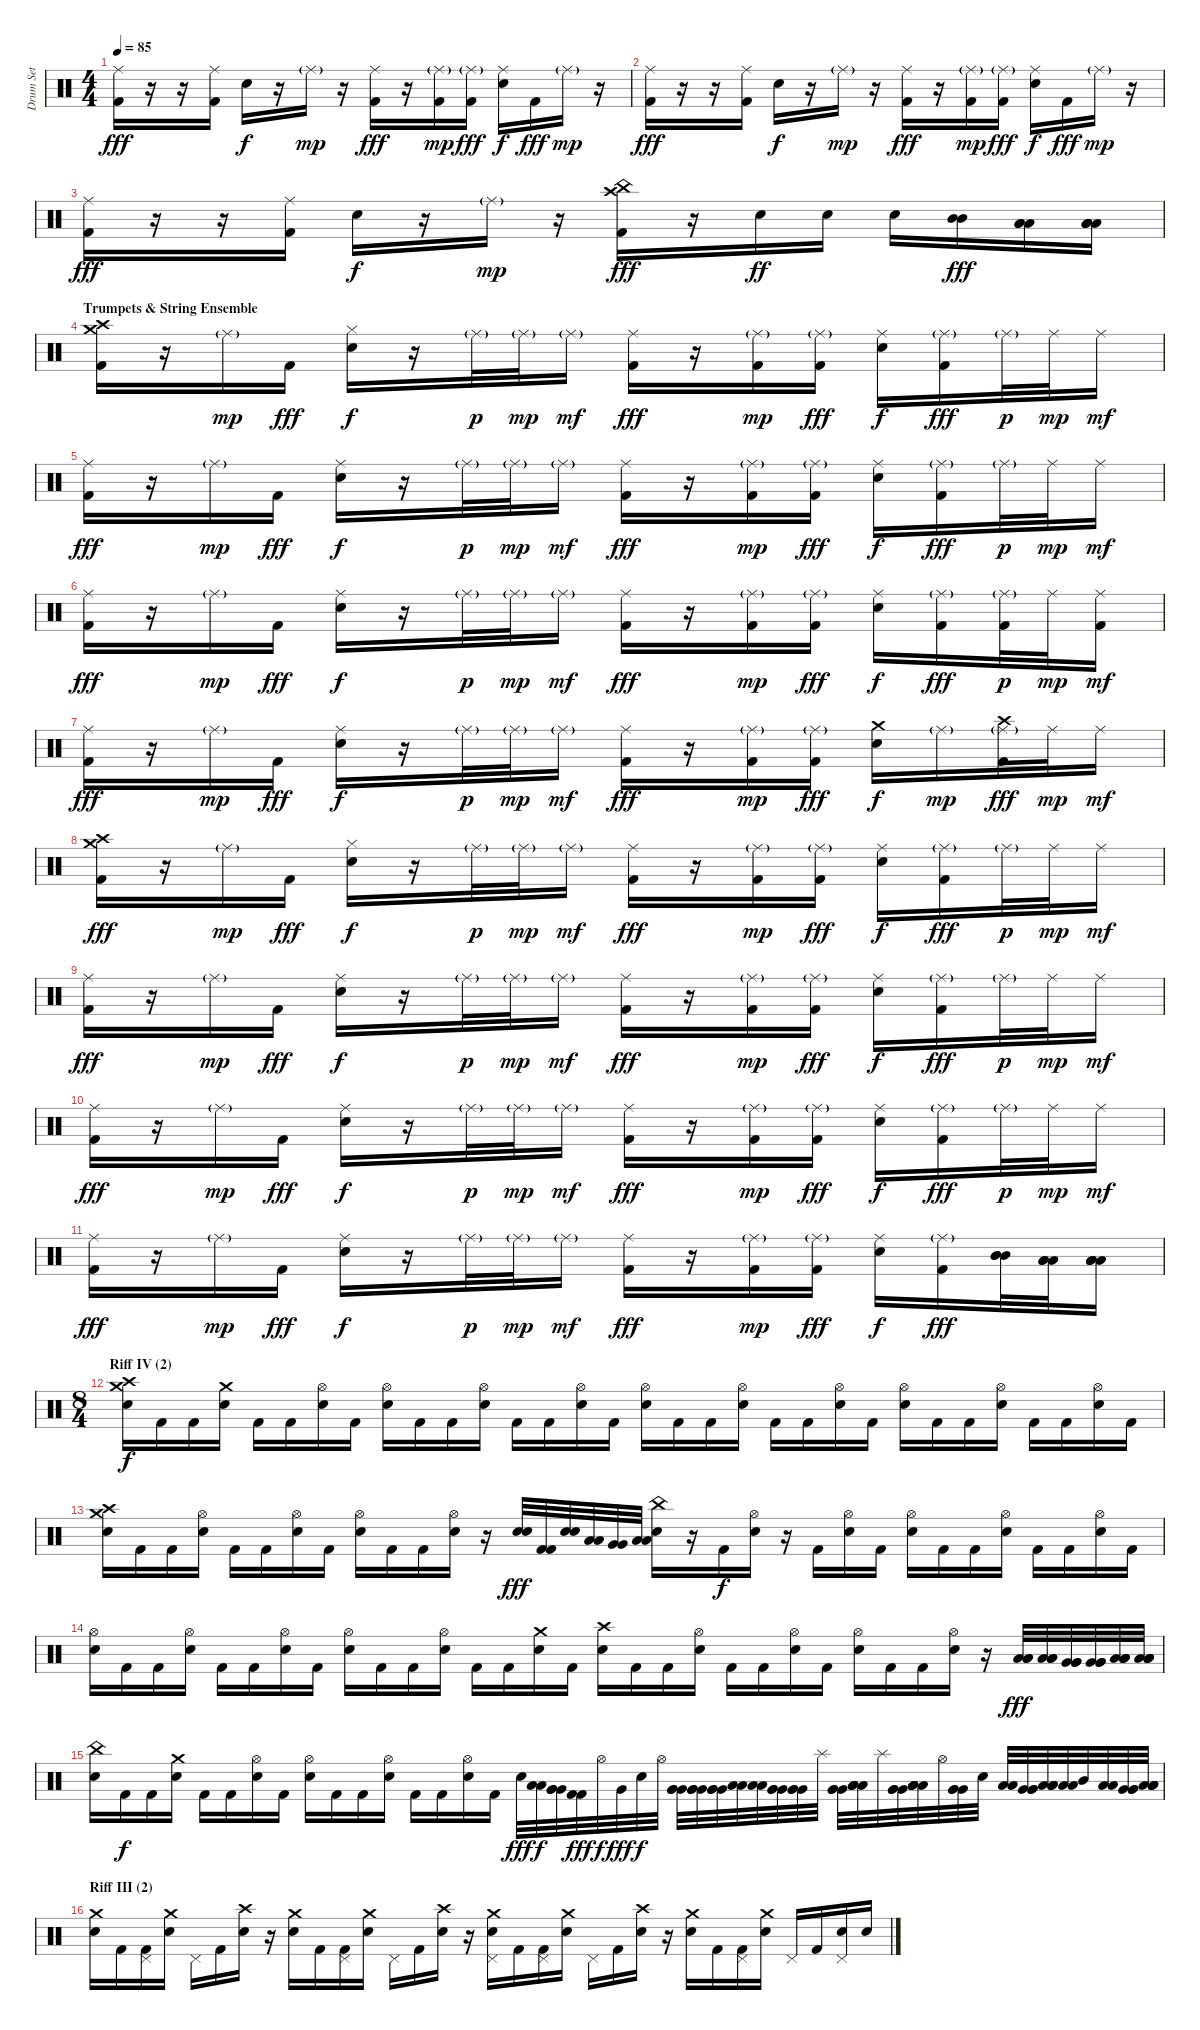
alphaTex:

\track ("Drum Set" "Drum Set") {instrument percussion}
\staff {score}
\articulation defaults
\ts (4 4)
\tempo 85
\clef neutral
\ks c
("Ride (middle)" "Kick (hit) 2").16{dy fff} r.16 r.16 ("Ride (middle)" "Kick (hit) 2").16 "Snare (hit) 2".16{dy f} r.16 "Ride (middle)"{g}.16{dy mp} r.16 ("Ride (middle)" "Kick (hit) 2").16{dy fff} r.16 ("Ride (middle)"{g} "Kick (hit) 2").16{dy mp} ("Ride (middle)"{g} "Kick (hit) 2").16{dy fff} ("Ride (middle)" "Snare (hit) 2").16{dy f} "Kick (hit) 2".16{dy fff} "Ride (middle)"{g}.16{dy mp} r.16 |
("Ride (middle)" "Kick (hit) 2").16{dy fff} r.16 r.16 ("Ride (middle)" "Kick (hit) 2").16 "Snare (hit) 2".16{dy f} r.16 "Ride (middle)"{g}.16{dy mp} r.16 ("Ride (middle)" "Kick (hit) 2").16{dy fff} r.16 ("Ride (middle)"{g} "Kick (hit) 2").16{dy mp} ("Ride (middle)"{g} "Kick (hit) 2").16{dy fff} ("Ride (middle)" "Snare (hit) 2").16{dy f} "Kick (hit) 2".16{dy fff} "Ride (middle)"{g}.16{dy mp} r.16 |
("Ride (middle)" "Kick (hit) 2").16{dy fff} r.16 r.16 ("Ride (middle)" "Kick (hit) 2").16 "Snare (hit) 2".16{dy f} r.16 "Ride (middle)"{g}.16{dy mp} r.16 ("Crash high (hit)" "China (hit)" "Kick (hit) 2").16{dy fff} r.16 "Snare (hit) 2".16{dy ff} "Snare (hit) 2".16 "Snare (hit) 2".16 ("Mid Tom (hit)" "Mid Tom (hit)").16{dy fff} ("Low Tom (hit)" "Low Tom (hit)" "Low Tom (hit)").16 ("Low Floor Tom (hit)" "Low Floor Tom (hit)" "Low Floor Tom (hit)" "Low Floor Tom (hit)").16 |
\section ("" "Trumpets & String Ensemble")
("Crash high (hit)" "Crash medium (hit)" "Kick (hit) 2").16 r.16 "Ride (middle)"{g}.16{dy mp} "Kick (hit) 2".16{dy fff} ("Hi-Hat (closed)" "Snare (hit) 2").16{dy f} r.16 "Ride (middle)"{g}.32{dy p} "Ride (middle)"{g}.32{dy mp} "Ride (middle)"{g}.16{dy mf} ("Ride (middle)" "Kick (hit) 2").16{dy fff} r.16 ("Ride (middle)"{g} "Kick (hit) 2").16{dy mp} ("Ride (middle)"{g} "Kick (hit) 2").16{dy fff} ("Ride (middle)" "Snare (hit) 2").16{dy f} ("Ride (middle)"{g} "Kick (hit) 2").16{dy fff} "Ride (middle)"{g}.32{dy p} "Ride (middle)".32{dy mp} "Ride (middle)".16{dy mf} |
("Ride (middle)" "Kick (hit) 2").16{dy fff} r.16 "Ride (middle)"{g}.16{dy mp} "Kick (hit) 2".16{dy fff} ("Ride (middle)" "Snare (hit) 2").16{dy f} r.16 "Ride (middle)"{g}.32{dy p} "Ride (middle)"{g}.32{dy mp} "Ride (middle)"{g}.16{dy mf} ("Ride (middle)" "Kick (hit) 2").16{dy fff} r.16 ("Ride (middle)"{g} "Kick (hit) 2").16{dy mp} ("Ride (middle)"{g} "Kick (hit) 2").16{dy fff} ("Ride (middle)" "Snare (hit) 2").16{dy f} ("Ride (middle)"{g} "Kick (hit) 2").16{dy fff} "Ride (middle)"{g}.32{dy p} "Ride (middle)".32{dy mp} "Ride (middle)".16{dy mf} |
("Ride (middle)" "Kick (hit) 2").16{dy fff} r.16 "Ride (middle)"{g}.16{dy mp} "Kick (hit) 2".16{dy fff} ("Ride (middle)" "Snare (hit) 2").16{dy f} r.16 "Ride (middle)"{g}.32{dy p} "Ride (middle)"{g}.32{dy mp} "Ride (middle)"{g}.16{dy mf} ("Ride (middle)" "Kick (hit) 2").16{dy fff} r.16 ("Ride (middle)"{g} "Kick (hit) 2").16{dy mp} ("Ride (middle)"{g} "Kick (hit) 2").16{dy fff} ("Ride (middle)" "Snare (hit) 2").16{dy f} ("Ride (middle)"{g} "Kick (hit) 2").16{dy fff} ("Ride (middle)"{g} "Kick (hit) 2").32{dy p} "Ride (middle)".32{dy mp} ("Ride (middle)" "Kick (hit) 2").16{dy mf} |
("Ride (middle)" "Kick (hit) 2").16{dy fff} r.16 "Ride (middle)"{g}.16{dy mp} "Kick (hit) 2".16{dy fff} ("Ride (middle)" "Snare (hit) 2").16{dy f} r.16 "Ride (middle)"{g}.32{dy p} "Ride (middle)"{g}.32{dy mp} "Ride (middle)"{g}.16{dy mf} ("Ride (middle)" "Kick (hit) 2").16{dy fff} r.16 ("Ride (middle)"{g} "Kick (hit) 2").16{dy mp} ("Ride (middle)"{g} "Kick (hit) 2").16{dy fff} ("Crash medium (hit)" "Snare (hit) 2").16{dy f} "Ride (middle)"{g}.16{dy mp} ("Crash high (hit)" "Ride (middle)"{g} "Kick (hit) 2").32{dy fff} "Ride (middle)".32{dy mp} "Ride (middle)".16{dy mf} |
("Crash high (hit)" "Crash medium (hit)" "Kick (hit) 2").16{dy fff} r.16 "Ride (middle)"{g}.16{dy mp} "Kick (hit) 2".16{dy fff} ("Hi-Hat (closed)" "Snare (hit) 2").16{dy f} r.16 "Ride (middle)"{g}.32{dy p} "Ride (middle)"{g}.32{dy mp} "Ride (middle)"{g}.16{dy mf} ("Ride (middle)" "Kick (hit) 2").16{dy fff} r.16 ("Ride (middle)"{g} "Kick (hit) 2").16{dy mp} ("Ride (middle)"{g} "Kick (hit) 2").16{dy fff} ("Ride (middle)" "Snare (hit) 2").16{dy f} ("Ride (middle)"{g} "Kick (hit) 2").16{dy fff} "Ride (middle)"{g}.32{dy p} "Ride (middle)".32{dy mp} "Ride (middle)".16{dy mf} |
("Ride (middle)" "Kick (hit) 2").16{dy fff} r.16 "Ride (middle)"{g}.16{dy mp} "Kick (hit) 2".16{dy fff} ("Ride (middle)" "Snare (hit) 2").16{dy f} r.16 "Ride (middle)"{g}.32{dy p} "Ride (middle)"{g}.32{dy mp} "Ride (middle)"{g}.16{dy mf} ("Ride (middle)" "Kick (hit) 2").16{dy fff} r.16 ("Ride (middle)"{g} "Kick (hit) 2").16{dy mp} ("Ride (middle)"{g} "Kick (hit) 2").16{dy fff} ("Ride (middle)" "Snare (hit) 2").16{dy f} ("Ride (middle)"{g} "Kick (hit) 2").16{dy fff} "Ride (middle)"{g}.32{dy p} "Ride (middle)".32{dy mp} "Ride (middle)".16{dy mf} |
("Ride (middle)" "Kick (hit) 2").16{dy fff} r.16 "Ride (middle)"{g}.16{dy mp} "Kick (hit) 2".16{dy fff} ("Ride (middle)" "Snare (hit) 2").16{dy f} r.16 "Ride (middle)"{g}.32{dy p} "Ride (middle)"{g}.32{dy mp} "Ride (middle)"{g}.16{dy mf} ("Ride (middle)" "Kick (hit) 2").16{dy fff} r.16 ("Ride (middle)"{g} "Kick (hit) 2").16{dy mp} ("Ride (middle)"{g} "Kick (hit) 2").16{dy fff} ("Ride (middle)" "Snare (hit) 2").16{dy f} ("Ride (middle)"{g} "Kick (hit) 2").16{dy fff} "Ride (middle)"{g}.32{dy p} "Ride (middle)".32{dy mp} "Ride (middle)".16{dy mf} |
("Ride (middle)" "Kick (hit) 2").16{dy fff} r.16 "Ride (middle)"{g}.16{dy mp} "Kick (hit) 2".16{dy fff} ("Ride (middle)" "Snare (hit) 2").16{dy f} r.16 "Ride (middle)"{g}.32{dy p} "Ride (middle)"{g}.32{dy mp} "Ride (middle)"{g}.16{dy mf} ("Ride (middle)" "Kick (hit) 2").16{dy fff} r.16 ("Ride (middle)"{g} "Kick (hit) 2").16{dy mp} ("Ride (middle)"{g} "Kick (hit) 2").16{dy fff} ("Ride (middle)" "Snare (hit) 2").16{dy f} ("Ride (middle)"{g} "Kick (hit) 2").16{dy fff} ("Mid Tom (hit)" "Mid Tom (hit)" "Mid Tom (hit)").32 ("Low Tom (hit)" "Low Tom (hit)" "Low Tom (hit)").32 ("Low Floor Tom (hit)" "Low Floor Tom (hit)" "Low Floor Tom (hit)" "Low Floor Tom (hit)").16 |
\ts (8 4)
\section ("" "Riff IV (2)")
("Crash high (hit)" "Crash medium (hit)" "Snare (hit) 2").16{dy f} "Kick (hit) 2".16 "Kick (hit) 2".16 ("Crash medium (hit)" "Snare (hit) 2").16 "Kick (hit) 2".16 "Kick (hit) 2".16 ("Hi-Hat (open)" "Snare (hit) 2").16 "Kick (hit) 2".16 ("Hi-Hat (open)" "Snare (hit) 2").16 "Kick (hit) 2".16 "Kick (hit) 2".16 ("Hi-Hat (open)" "Snare (hit) 2").16 "Kick (hit) 2".16 "Kick (hit) 2".16 ("Hi-Hat (open)" "Snare (hit) 2").16 "Kick (hit) 2".16 ("Hi-Hat (open)" "Snare (hit) 2").16 "Kick (hit) 2".16 "Kick (hit) 2".16 ("Hi-Hat (open)" "Snare (hit) 2").16 "Kick (hit) 2".16 "Kick (hit) 2".16 ("Hi-Hat (open)" "Snare (hit) 2").16 "Kick (hit) 2".16 ("Hi-Hat (open)" "Snare (hit) 2").16 "Kick (hit) 2".16 "Kick (hit) 2".16 ("Hi-Hat (open)" "Snare (hit) 2").16 "Kick (hit) 2".16 "Kick (hit) 2".16 ("Hi-Hat (open)" "Snare (hit) 2").16 "Kick (hit) 2".16 |
("Crash high (hit)" "Crash medium (hit)" "Snare (hit) 2").16 "Kick (hit) 2".16 "Kick (hit) 2".16 ("Hi-Hat (open)" "Snare (hit) 2").16 "Kick (hit) 2".16 "Kick (hit) 2".16 ("Hi-Hat (open)" "Snare (hit) 2").16 "Kick (hit) 2".16 ("Hi-Hat (open)" "Snare (hit) 2").16 "Kick (hit) 2".16 "Kick (hit) 2".16 ("Hi-Hat (open)" "Snare (hit) 2").16 r.16 ("Snare (hit) 2" "Snare (hit) 2").32{dy fff} ("Kick (hit) 2" "Kick (hit) 2").32 ("Snare (hit) 2" "Snare (hit) 2").32 ("Low Tom (hit)" "Low Tom (hit)").32 ("Very Low Tom (hit)" "Very Low Tom (hit)").32 ("Low Floor Tom (hit)" "Low Floor Tom (hit)").32 ("China (hit)" "Snare (hit) 2").16 r.16 "Kick (hit) 2".16{dy f} ("Hi-Hat (open)" "Snare (hit) 2").16 r.16 "Kick (hit) 2".16 ("Hi-Hat (open)" "Snare (hit) 2").16 "Kick (hit) 2".16 ("Hi-Hat (open)" "Snare (hit) 2").16 "Kick (hit) 2".16 "Kick (hit) 2".16 ("Hi-Hat (open)" "Snare (hit) 2").16 "Kick (hit) 2".16 "Kick (hit) 2".16 ("Hi-Hat (open)" "Snare (hit) 2").16 "Kick (hit) 2".16 |
("Hi-Hat (open)" "Snare (hit) 2").16 "Kick (hit) 2".16 "Kick (hit) 2".16 ("Hi-Hat (open)" "Snare (hit) 2").16 "Kick (hit) 2".16 "Kick (hit) 2".16 ("Hi-Hat (open)" "Snare (hit) 2").16 "Kick (hit) 2".16 ("Hi-Hat (open)" "Snare (hit) 2").16 "Kick (hit) 2".16 "Kick (hit) 2".16 ("Hi-Hat (open)" "Snare (hit) 2").16 "Kick (hit) 2".16 "Kick (hit) 2".16 ("Crash medium (hit)" "Snare (hit) 2").16 "Kick (hit) 2".16 ("Crash high (hit)" "Snare (hit) 2").16 "Kick (hit) 2".16 "Kick (hit) 2".16 ("Hi-Hat (open)" "Snare (hit) 2").16 "Kick (hit) 2".16 "Kick (hit) 2".16 ("Hi-Hat (open)" "Snare (hit) 2").16 "Kick (hit) 2".16 ("Hi-Hat (open)" "Snare (hit) 2").16 "Kick (hit) 2".16 "Kick (hit) 2".16 ("Hi-Hat (open)" "Snare (hit) 2").16 r.16 ("Low Tom (hit)" "Low Tom (hit)" "Low Tom (hit)").32{dy fff} ("Low Tom (hit)" "Low Tom (hit)" "Low Tom (hit)").32 ("Very Low Tom (hit)" "Very Low Tom (hit)" "Very Low Tom (hit)").32 ("Very Low Tom (hit)" "Very Low Tom (hit)" "Very Low Tom (hit)").32 ("Low Floor Tom (hit)" "Low Floor Tom (hit)" "Low Floor Tom (hit)" "Low Floor Tom (hit)").32 ("Low Floor Tom (hit)" "Low Floor Tom (hit)" "Low Floor Tom (hit)" "Low Floor Tom (hit)").32 |
("China (hit)" "Snare (hit) 2").16 "Kick (hit) 2".16{dy f} "Kick (hit) 2".16 ("Crash medium (hit)" "Snare (hit) 2").16 "Kick (hit) 2".16 "Kick (hit) 2".16 ("Hi-Hat (open)" "Snare (hit) 2").16 "Kick (hit) 2".16 ("Hi-Hat (open)" "Snare (hit) 2").16 "Kick (hit) 2".16 "Kick (hit) 2".16 ("Hi-Hat (open)" "Snare (hit) 2").16 "Kick (hit) 2".16 "Kick (hit) 2".16 ("Hi-Hat (open)" "Snare (hit) 2").16 "Kick (hit) 2".16 "Snare (hit) 2".32{dy fff balance 13} ("Low Tom (hit)" "Low Tom (hit)").32{dy f} ("Very Low Tom (hit)" "Very Low Tom (hit)" "Very Low Tom (hit)").32 ("Kick (hit) 2" "Kick (hit) 2").32{dy fff} "Hi-Hat (open)".32{dy f} "Very Low Tom (hit)".32{dy fff} "Snare (hit) 2".32{dy f} "Hi-Hat (open)".32 ("Very Low Tom (hit)" "Very Low Tom (hit)" "Very Low Tom (hit)").32 ("Very Low Tom (hit)" "Very Low Tom (hit)" "Very Low Tom (hit)").32 ("Very Low Tom (hit)" "Very Low Tom (hit)" "Very Low Tom (hit)").32 ("Low Tom (hit)" "Low Tom (hit)").32 ("Low Tom (hit)" "Low Tom (hit)").32 ("Very Low Tom (hit)" "Very Low Tom (hit)" "Very Low Tom (hit)").32 ("Very Low Tom (hit)" "Very Low Tom (hit)" "Very Low Tom (hit)").32 "Splash (hit)".32 ("Very Low Tom (hit)" "Very Low Tom (hit)" "Very Low Tom (hit)").32{balance 0} ("Low Floor Tom (hit)" "Low Floor Tom (hit)" "Low Floor Tom (hit)" "Low Floor Tom (hit)").32 "Splash (hit)".32 ("Very Low Tom (hit)" "Very Low Tom (hit)" "Very Low Tom (hit)").32 ("Low Floor Tom (hit)" "Low Floor Tom (hit)" "Low Floor Tom (hit)" "Low Floor Tom (hit)").32 "Hi-Hat (open)".32 ("Very Low Tom (hit)" "Very Low Tom (hit)" "Very Low Tom (hit)").32 "Snare (hit) 2".32 ("Low Tom (hit)" "Low Tom (hit)").32 ("Very Low Tom (hit)" "Very Low Tom (hit)" "Very Low Tom (hit)").32 ("Low Floor Tom (hit)" "Low Floor Tom (hit)" "Low Floor Tom (hit)" "Low Floor Tom (hit)").32 ("Low Tom (hit)" "Low Tom (hit)").32 "Mid Tom (hit)".32 ("Low Tom (hit)" "Low Tom (hit)").32 ("Very Low Tom (hit)" "Very Low Tom (hit)" "Very Low Tom (hit)").32 ("Low Floor Tom (hit)" "Low Floor Tom (hit)" "Low Floor Tom (hit)" "Low Floor Tom (hit)").32 |
\section ("" "Riff III (2)")
("Crash medium (hit)" "Snare (hit) 2").16{balance 8} "Kick (hit) 2".16 ("Pedal Hi-Hat (hit)" "Kick (hit) 2").16 ("Crash medium (hit)" "Snare (hit) 2").16 "Pedal Hi-Hat (hit)".16 "Kick (hit) 2".16 ("Crash high (hit)" "Snare (hit) 2").16 r.16 ("Crash medium (hit)" "Snare (hit) 2").16 "Kick (hit) 2".16 ("Pedal Hi-Hat (hit)" "Kick (hit) 2").16 ("Crash medium (hit)" "Snare (hit) 2").16 "Pedal Hi-Hat (hit)".16 "Kick (hit) 2".16 ("Crash high (hit)" "Snare (hit) 2").16 r.16 ("Crash medium (hit)" "Pedal Hi-Hat (hit)" "Snare (hit) 2").16 "Kick (hit) 2".16 ("Pedal Hi-Hat (hit)" "Kick (hit) 2").16 ("Crash medium (hit)" "Snare (hit) 2").16 "Pedal Hi-Hat (hit)".16 "Kick (hit) 2".16 ("Crash high (hit)" "Snare (hit) 2").16 r.16 ("Crash medium (hit)" "Snare (hit) 2").16 "Kick (hit) 2".16 ("Pedal Hi-Hat (hit)" "Kick (hit) 2").16 ("Crash medium (hit)" "Snare (hit) 2").16 "Pedal Hi-Hat (hit)".16 "Kick (hit) 2".16 ("Pedal Hi-Hat (hit)" "Snare (hit) 2").16 "Snare (hit) 2".16
